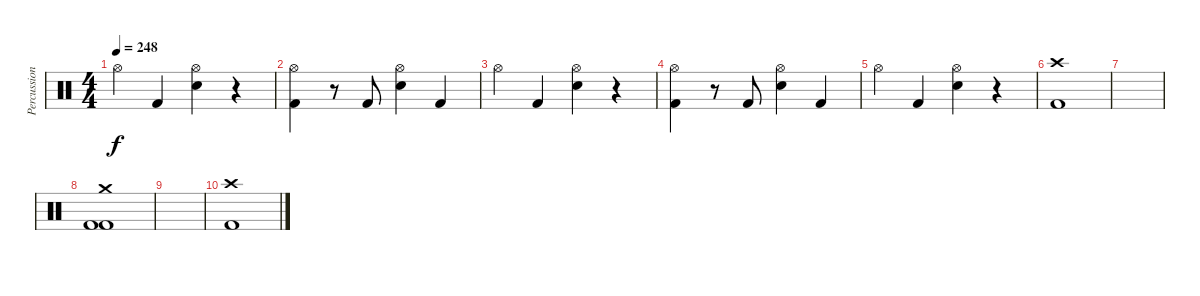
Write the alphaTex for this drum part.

\track ("Percussion" "Percussion") {instrument percussion}
\staff {score}
\articulation defaults
\ts (4 4)
\tempo 248
\clef neutral
\ks c "Hi-Hat (open)".4{dy f} "Kick (hit) 2".4
("Hi-Hat (open)" "Snare (hit) 2").4 r.4 |
("Hi-Hat (open)" "Kick (hit) 2").4 r.8 "Kick (hit) 2".8 ("Hi-Hat (open)" "Snare (hit) 2").4 "Kick (hit) 2".4 |
"Hi-Hat (open)".4 "Kick (hit) 2".4 ("Hi-Hat (open)" "Snare (hit) 2").4 r.4 |
("Hi-Hat (open)" "Kick (hit) 2").4 r.8 "Kick (hit) 2".8 ("Hi-Hat (open)" "Snare (hit) 2").4 "Kick (hit) 2".4 |
"Hi-Hat (open)".4 "Kick (hit) 2".4 ("Hi-Hat (open)" "Snare (hit) 2").4 r.4 |
("Crash high (hit)" "Kick (hit) 2").1 |
|
("Crash medium (hit)" "Kick (hit) 2" "Kick (hit) 2").1 |
|
("Crash high (hit)" "Kick (hit) 2").1
